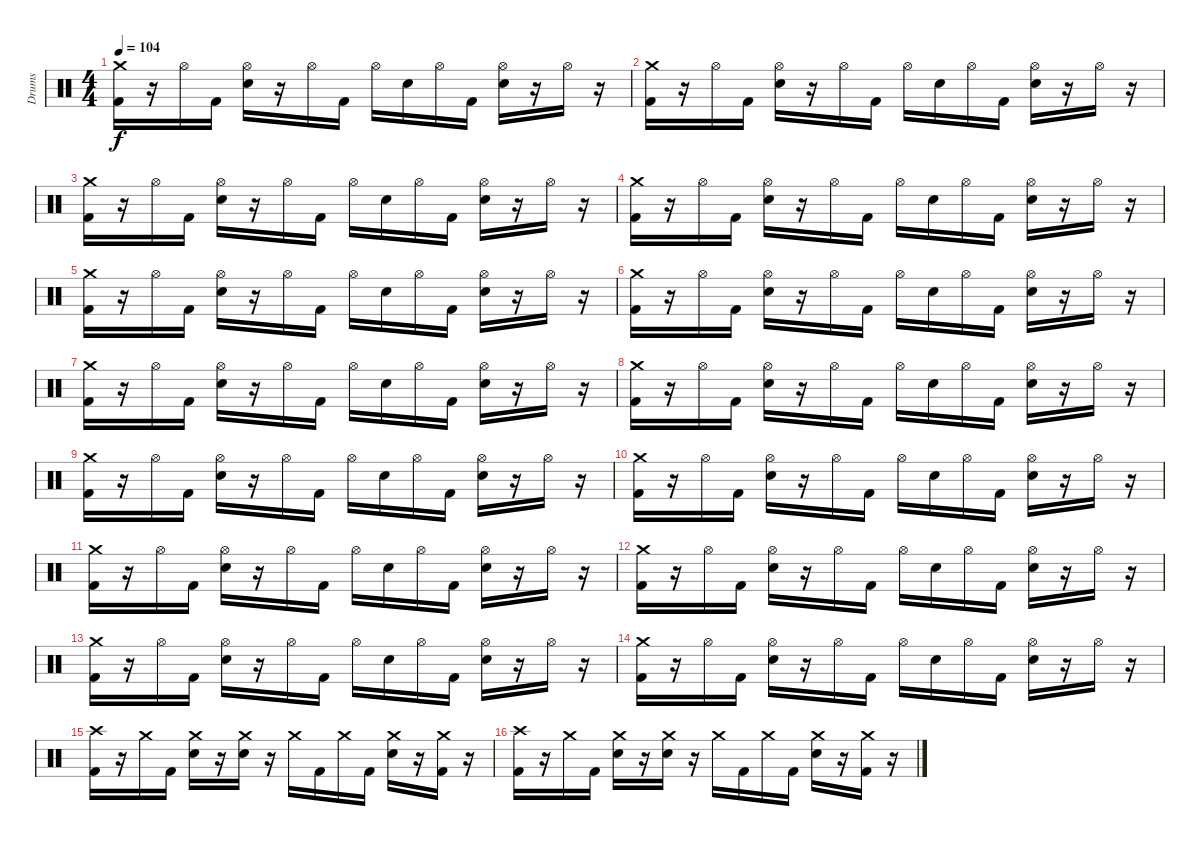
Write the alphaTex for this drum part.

\track ("Drums" "Drums") {instrument percussion}
\staff {score}
\articulation defaults
\ts (4 4)
\tempo 104
\clef neutral
\ks c
("Crash medium (hit)" "Kick (hit) 2").16{dy f} r.16 "Hi-Hat (open)".16 "Kick (hit) 2".16 ("Hi-Hat (open)" "Electric Snare (hit)").16 r.16 "Hi-Hat (open)".16 "Kick (hit) 2".16 "Hi-Hat (open)".16 "Electric Snare (hit)".16 "Hi-Hat (open)".16 "Kick (hit) 2".16 ("Hi-Hat (open)" "Electric Snare (hit)").16 r.16 "Hi-Hat (open)".16 r.16 |
("Crash medium (hit)" "Kick (hit) 2").16 r.16 "Hi-Hat (open)".16 "Kick (hit) 2".16 ("Hi-Hat (open)" "Electric Snare (hit)").16 r.16 "Hi-Hat (open)".16 "Kick (hit) 2".16 "Hi-Hat (open)".16 "Electric Snare (hit)".16 "Hi-Hat (open)".16 "Kick (hit) 2".16 ("Hi-Hat (open)" "Electric Snare (hit)").16 r.16 "Hi-Hat (open)".16 r.16 |
("Crash medium (hit)" "Kick (hit) 2").16 r.16 "Hi-Hat (open)".16 "Kick (hit) 2".16 ("Hi-Hat (open)" "Electric Snare (hit)").16 r.16 "Hi-Hat (open)".16 "Kick (hit) 2".16 "Hi-Hat (open)".16 "Electric Snare (hit)".16 "Hi-Hat (open)".16 "Kick (hit) 2".16 ("Hi-Hat (open)" "Electric Snare (hit)").16 r.16 "Hi-Hat (open)".16 r.16 |
("Crash medium (hit)" "Kick (hit) 2").16 r.16 "Hi-Hat (open)".16 "Kick (hit) 2".16 ("Hi-Hat (open)" "Electric Snare (hit)").16 r.16 "Hi-Hat (open)".16 "Kick (hit) 2".16 "Hi-Hat (open)".16 "Electric Snare (hit)".16 "Hi-Hat (open)".16 "Kick (hit) 2".16 ("Hi-Hat (open)" "Electric Snare (hit)").16 r.16 "Hi-Hat (open)".16 r.16 |
("Crash medium (hit)" "Kick (hit) 2").16 r.16 "Hi-Hat (open)".16 "Kick (hit) 2".16 ("Hi-Hat (open)" "Electric Snare (hit)").16 r.16 "Hi-Hat (open)".16 "Kick (hit) 2".16 "Hi-Hat (open)".16 "Electric Snare (hit)".16 "Hi-Hat (open)".16 "Kick (hit) 2".16 ("Hi-Hat (open)" "Electric Snare (hit)").16 r.16 "Hi-Hat (open)".16 r.16 |
("Crash medium (hit)" "Kick (hit) 2").16 r.16 "Hi-Hat (open)".16 "Kick (hit) 2".16 ("Hi-Hat (open)" "Electric Snare (hit)").16 r.16 "Hi-Hat (open)".16 "Kick (hit) 2".16 "Hi-Hat (open)".16 "Electric Snare (hit)".16 "Hi-Hat (open)".16 "Kick (hit) 2".16 ("Hi-Hat (open)" "Electric Snare (hit)").16 r.16 "Hi-Hat (open)".16 r.16 |
("Crash medium (hit)" "Kick (hit) 2").16 r.16 "Hi-Hat (open)".16 "Kick (hit) 2".16 ("Hi-Hat (open)" "Electric Snare (hit)").16 r.16 "Hi-Hat (open)".16 "Kick (hit) 2".16 "Hi-Hat (open)".16 "Electric Snare (hit)".16 "Hi-Hat (open)".16 "Kick (hit) 2".16 ("Hi-Hat (open)" "Electric Snare (hit)").16 r.16 "Hi-Hat (open)".16 r.16 |
("Crash medium (hit)" "Kick (hit) 2").16 r.16 "Hi-Hat (open)".16 "Kick (hit) 2".16 ("Hi-Hat (open)" "Electric Snare (hit)").16 r.16 "Hi-Hat (open)".16 "Kick (hit) 2".16 "Hi-Hat (open)".16 "Electric Snare (hit)".16 "Hi-Hat (open)".16 "Kick (hit) 2".16 ("Hi-Hat (open)" "Electric Snare (hit)").16 r.16 "Hi-Hat (open)".16 r.16 |
("Crash medium (hit)" "Kick (hit) 2").16 r.16 "Hi-Hat (open)".16 "Kick (hit) 2".16 ("Hi-Hat (open)" "Electric Snare (hit)").16 r.16 "Hi-Hat (open)".16 "Kick (hit) 2".16 "Hi-Hat (open)".16 "Electric Snare (hit)".16 "Hi-Hat (open)".16 "Kick (hit) 2".16 ("Hi-Hat (open)" "Electric Snare (hit)").16 r.16 "Hi-Hat (open)".16 r.16 |
("Crash medium (hit)" "Kick (hit) 2").16 r.16 "Hi-Hat (open)".16 "Kick (hit) 2".16 ("Hi-Hat (open)" "Electric Snare (hit)").16 r.16 "Hi-Hat (open)".16 "Kick (hit) 2".16 "Hi-Hat (open)".16 "Electric Snare (hit)".16 "Hi-Hat (open)".16 "Kick (hit) 2".16 ("Hi-Hat (open)" "Electric Snare (hit)").16 r.16 "Hi-Hat (open)".16 r.16 |
("Crash medium (hit)" "Kick (hit) 2").16 r.16 "Hi-Hat (open)".16 "Kick (hit) 2".16 ("Hi-Hat (open)" "Electric Snare (hit)").16 r.16 "Hi-Hat (open)".16 "Kick (hit) 2".16 "Hi-Hat (open)".16 "Electric Snare (hit)".16 "Hi-Hat (open)".16 "Kick (hit) 2".16 ("Hi-Hat (open)" "Electric Snare (hit)").16 r.16 "Hi-Hat (open)".16 r.16 |
("Crash medium (hit)" "Kick (hit) 2").16 r.16 "Hi-Hat (open)".16 "Kick (hit) 2".16 ("Hi-Hat (open)" "Electric Snare (hit)").16 r.16 "Hi-Hat (open)".16 "Kick (hit) 2".16 "Hi-Hat (open)".16 "Electric Snare (hit)".16 "Hi-Hat (open)".16 "Kick (hit) 2".16 ("Hi-Hat (open)" "Electric Snare (hit)").16 r.16 "Hi-Hat (open)".16 r.16 |
("Crash medium (hit)" "Kick (hit) 2").16 r.16 "Hi-Hat (open)".16 "Kick (hit) 2".16 ("Hi-Hat (open)" "Electric Snare (hit)").16 r.16 "Hi-Hat (open)".16 "Kick (hit) 2".16 "Hi-Hat (open)".16 "Electric Snare (hit)".16 "Hi-Hat (open)".16 "Kick (hit) 2".16 ("Hi-Hat (open)" "Electric Snare (hit)").16 r.16 "Hi-Hat (open)".16 r.16 |
("Crash medium (hit)" "Kick (hit) 2").16 r.16 "Hi-Hat (open)".16 "Kick (hit) 2".16 ("Hi-Hat (open)" "Electric Snare (hit)").16 r.16 "Hi-Hat (open)".16 "Kick (hit) 2".16 "Hi-Hat (open)".16 "Electric Snare (hit)".16 "Hi-Hat (open)".16 "Kick (hit) 2".16 ("Hi-Hat (open)" "Electric Snare (hit)").16 r.16 "Hi-Hat (open)".16 r.16 |
("Crash high (hit)" "Kick (hit) 2").16 r.16 "Crash medium (hit)".16 "Kick (hit) 2".16 ("Crash medium (hit)" "Electric Snare (hit)").16 r.16 ("Crash medium (hit)" "Electric Snare (hit)").16 r.16 "Crash medium (hit)".16 "Kick (hit) 2".16 "Crash medium (hit)".16 "Kick (hit) 2".16 ("Crash medium (hit)" "Electric Snare (hit)").16 r.16 ("Crash medium (hit)" "Kick (hit) 2").16 r.16 |
("Crash high (hit)" "Kick (hit) 2").16 r.16 "Crash medium (hit)".16 "Kick (hit) 2".16 ("Crash medium (hit)" "Electric Snare (hit)").16 r.16 ("Crash medium (hit)" "Electric Snare (hit)").16 r.16 "Crash medium (hit)".16 "Kick (hit) 2".16 "Crash medium (hit)".16 "Kick (hit) 2".16 ("Crash medium (hit)" "Electric Snare (hit)").16 r.16 ("Crash medium (hit)" "Kick (hit) 2").16 r.16
